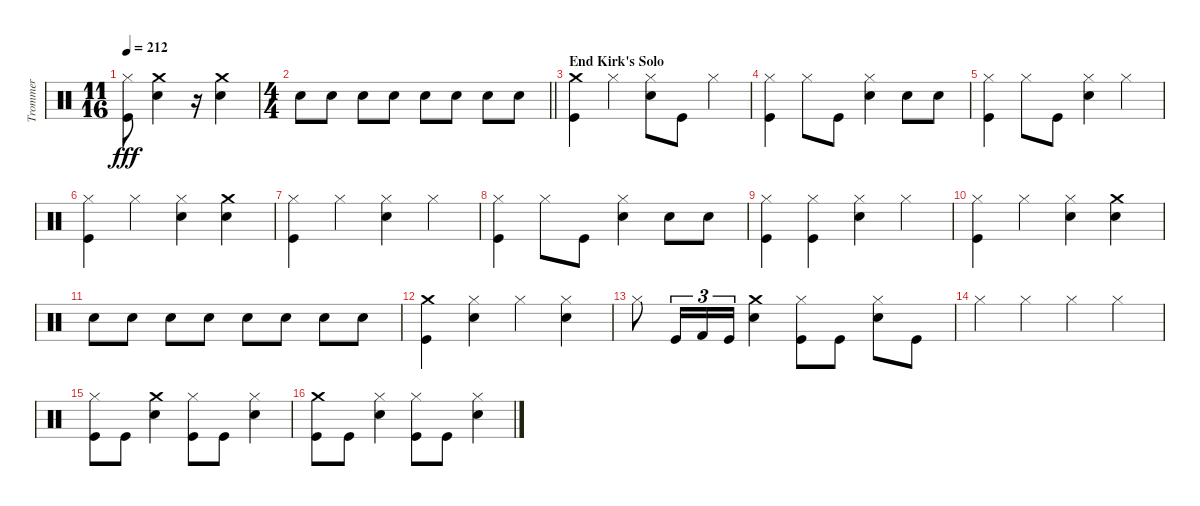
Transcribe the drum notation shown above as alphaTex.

\track ("Trommer" "Trommer") {instrument percussion}
\staff {score}
\articulation defaults
\ts (11 16)
\tempo 212
\clef neutral
\ks c
("Hi-Hat (closed)" "Kick (hit)").8{dy fff} ("Snare (hit) 2" "Crash medium (hit)").4 r.16 ("Snare (hit) 2" "Crash medium (hit)").4 |
\ts (4 4)
\barLineRight lightlight "Snare (hit) 2".8 "Snare (hit) 2".8 "Snare (hit) 2".8 "Snare (hit) 2".8 "Snare (hit) 2".8 "Snare (hit) 2".8 "Snare (hit) 2".8 "Snare (hit) 2".8
|
\section ("" "End Kirk's Solo")
("Kick (hit)" "Crash medium (hit)").4 "Hi-Hat (closed)".4 ("Snare (hit) 2" "Hi-Hat (closed)").8 "Kick (hit)".8 "Hi-Hat (closed)".4 |
("Kick (hit)" "Hi-Hat (closed)").4 "Hi-Hat (closed)".8 "Kick (hit)".8 ("Hi-Hat (closed)" "Snare (hit) 2").4 "Snare (hit) 2".8 "Snare (hit) 2".8 |
("Hi-Hat (closed)" "Kick (hit)").4 "Hi-Hat (closed)".8 "Kick (hit)".8 ("Snare (hit) 2" "Hi-Hat (closed)").4 "Hi-Hat (closed)".4 |
("Kick (hit)" "Hi-Hat (closed)").4 "Hi-Hat (closed)".4 ("Hi-Hat (closed)" "Snare (hit) 2").4 ("Snare (hit) 2" "Crash medium (hit)").4 |
("Kick (hit)" "Hi-Hat (closed)").4 "Hi-Hat (closed)".4 ("Snare (hit) 2" "Hi-Hat (closed)").4 "Hi-Hat (closed)".4 |
("Kick (hit)" "Hi-Hat (closed)").4 "Hi-Hat (closed)".8 "Kick (hit)".8 ("Snare (hit) 2" "Hi-Hat (closed)").4 "Snare (hit) 2".8 "Snare (hit) 2".8 |
("Kick (hit)" "Hi-Hat (closed)").4 ("Kick (hit)" "Hi-Hat (closed)").4 ("Snare (hit) 2" "Hi-Hat (closed)").4 "Hi-Hat (closed)".4 |
("Kick (hit)" "Hi-Hat (closed)").4 "Hi-Hat (closed)".4 ("Snare (hit) 2" "Hi-Hat (closed)").4 ("Snare (hit) 2" "Crash medium (hit)").4 |
"Snare (hit) 2".8 "Snare (hit) 2".8 "Snare (hit) 2".8 "Snare (hit) 2".8 "Snare (hit) 2".8 "Snare (hit) 2".8 "Snare (hit) 2".8 "Snare (hit) 2".8 |
("Kick (hit)" "Crash medium (hit)").4 ("Hi-Hat (closed)" "Snare (hit) 2").4 "Hi-Hat (closed)".4 ("Snare (hit) 2" "Hi-Hat (closed)").4 |
"Hi-Hat (closed)".8 "Kick (hit)".16{tu (3 2)} "Kick (hit) 2".16{tu (3 2)} "Kick (hit)".16{tu (3 2)} ("Snare (hit) 2" "Crash medium (hit)").4 ("Kick (hit)" "Hi-Hat (closed)").8 "Kick (hit)".8 ("Snare (hit) 2" "Hi-Hat (closed)").8 "Kick (hit)".8 |
"Hi-Hat (closed)".4 "Hi-Hat (closed)".4 "Hi-Hat (closed)".4 "Hi-Hat (closed)".4 |
("Kick (hit)" "Hi-Hat (closed)").8 "Kick (hit)".8 ("Snare (hit) 2" "Crash medium (hit)").4 ("Hi-Hat (closed)" "Kick (hit)").8 "Kick (hit)".8 ("Snare (hit) 2" "Hi-Hat (closed)").4 |
("Kick (hit)" "Crash medium (hit)").8 "Kick (hit)".8 ("Snare (hit) 2" "Hi-Hat (closed)").4 ("Kick (hit)" "Hi-Hat (closed)").8 "Kick (hit)".8 ("Snare (hit) 2" "Hi-Hat (closed)").4
